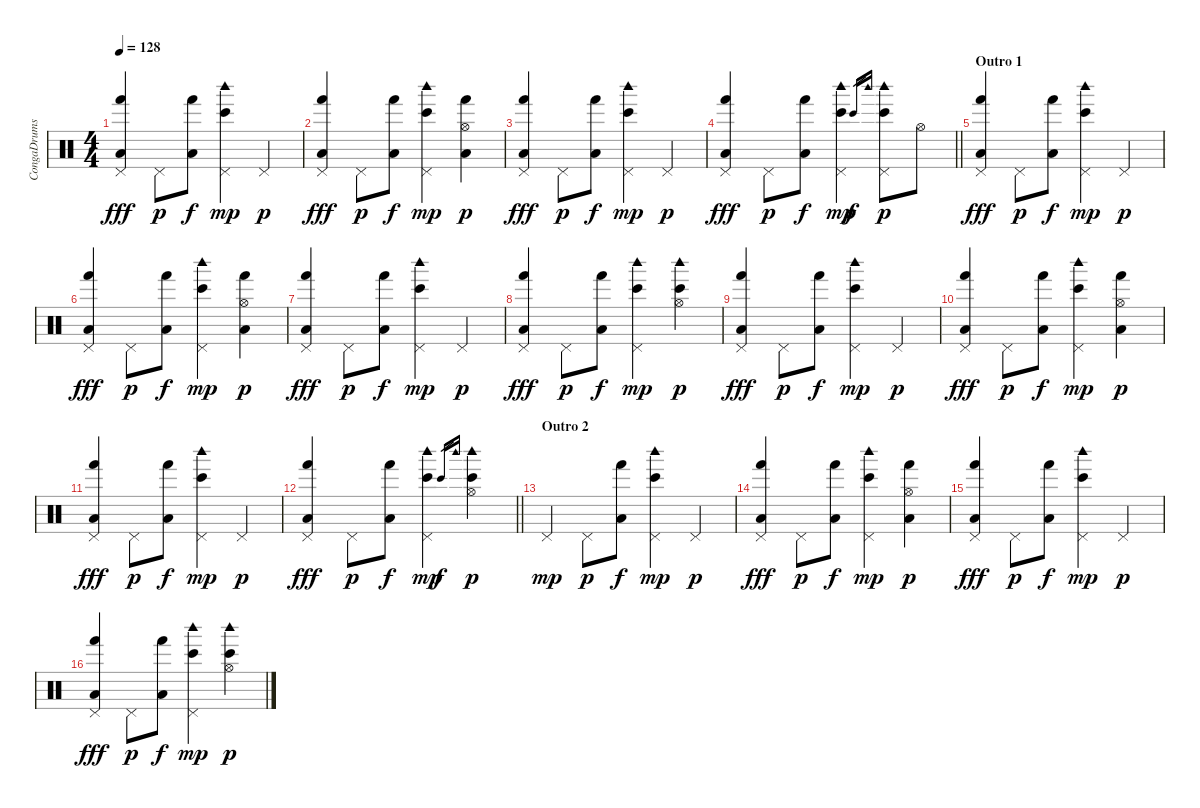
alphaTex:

\track ("CongaDrums" "CongaDrums") {instrument percussion}
\staff {score}
\articulation defaults
\ts (4 4)
\tempo 128
\clef neutral
\ks c
("Pedal Hi-Hat (hit)" "Hand (hit)" "Low Floor Tom (hit)").4{dy fff} "Pedal Hi-Hat (hit)".8{dy p} ("Hand (hit)" "Low Floor Tom (hit)").8{dy f} ("Bongo High (hit)" "Woodblock high (hit)" "Pedal Hi-Hat (hit)").4{dy mp} "Pedal Hi-Hat (hit)".4{dy p} |
("Pedal Hi-Hat (hit)" "Hand (hit)" "Low Floor Tom (hit)").4{dy fff} "Pedal Hi-Hat (hit)".8{dy p} ("Hand (hit)" "Low Floor Tom (hit)").8{dy f} ("Bongo High (hit)" "Woodblock high (hit)" "Pedal Hi-Hat (hit)").4{dy mp} ("Hi-Hat (open)" "Hand (hit)" "Low Floor Tom (hit)").4{dy p} |
("Pedal Hi-Hat (hit)" "Hand (hit)" "Low Floor Tom (hit)").4{dy fff} "Pedal Hi-Hat (hit)".8{dy p} ("Hand (hit)" "Low Floor Tom (hit)").8{dy f} ("Bongo High (hit)" "Woodblock high (hit)" "Pedal Hi-Hat (hit)").4{dy mp} "Pedal Hi-Hat (hit)".4{dy p} |
\barLineRight lightlight
("Pedal Hi-Hat (hit)" "Hand (hit)" "Low Floor Tom (hit)").4{dy fff} "Pedal Hi-Hat (hit)".8{dy p} ("Hand (hit)" "Low Floor Tom (hit)").8{dy f} ("Bongo High (hit)" "Woodblock high (hit)" "Pedal Hi-Hat (hit)").4{dy mp} "Bongo High (hit)".16{gr dy f} "Woodblock high (hit)".16{gr} ("Bongo High (hit)" "Woodblock high (hit)" "Pedal Hi-Hat (hit)").8{dy p} "Hi-Hat (open)".8 |
\section ("" "Outro 1")
("Pedal Hi-Hat (hit)" "Hand (hit)" "Low Floor Tom (hit)").4{dy fff} "Pedal Hi-Hat (hit)".8{dy p} ("Hand (hit)" "Low Floor Tom (hit)").8{dy f} ("Bongo High (hit)" "Woodblock high (hit)" "Pedal Hi-Hat (hit)").4{dy mp} "Pedal Hi-Hat (hit)".4{dy p} |
("Pedal Hi-Hat (hit)" "Hand (hit)" "Low Floor Tom (hit)").4{dy fff} "Pedal Hi-Hat (hit)".8{dy p} ("Hand (hit)" "Low Floor Tom (hit)").8{dy f} ("Bongo High (hit)" "Woodblock high (hit)" "Pedal Hi-Hat (hit)").4{dy mp} ("Hi-Hat (open)" "Hand (hit)" "Low Floor Tom (hit)").4{dy p} |
("Pedal Hi-Hat (hit)" "Hand (hit)" "Low Floor Tom (hit)").4{dy fff} "Pedal Hi-Hat (hit)".8{dy p} ("Hand (hit)" "Low Floor Tom (hit)").8{dy f} ("Bongo High (hit)" "Woodblock high (hit)" "Pedal Hi-Hat (hit)").4{dy mp} "Pedal Hi-Hat (hit)".4{dy p} |
("Pedal Hi-Hat (hit)" "Hand (hit)" "Low Floor Tom (hit)").4{dy fff} "Pedal Hi-Hat (hit)".8{dy p} ("Hand (hit)" "Low Floor Tom (hit)").8{dy f} ("Bongo High (hit)" "Woodblock high (hit)" "Pedal Hi-Hat (hit)").4{dy mp} ("Bongo High (hit)" "Woodblock high (hit)" "Hi-Hat (open)").4{dy p} |
("Pedal Hi-Hat (hit)" "Hand (hit)" "Low Floor Tom (hit)").4{dy fff} "Pedal Hi-Hat (hit)".8{dy p} ("Hand (hit)" "Low Floor Tom (hit)").8{dy f} ("Bongo High (hit)" "Woodblock high (hit)" "Pedal Hi-Hat (hit)").4{dy mp} "Pedal Hi-Hat (hit)".4{dy p} |
("Pedal Hi-Hat (hit)" "Hand (hit)" "Low Floor Tom (hit)").4{dy fff} "Pedal Hi-Hat (hit)".8{dy p} ("Hand (hit)" "Low Floor Tom (hit)").8{dy f} ("Bongo High (hit)" "Woodblock high (hit)" "Pedal Hi-Hat (hit)").4{dy mp} ("Hi-Hat (open)" "Hand (hit)" "Low Floor Tom (hit)").4{dy p} |
("Pedal Hi-Hat (hit)" "Hand (hit)" "Low Floor Tom (hit)").4{dy fff} "Pedal Hi-Hat (hit)".8{dy p} ("Hand (hit)" "Low Floor Tom (hit)").8{dy f} ("Bongo High (hit)" "Woodblock high (hit)" "Pedal Hi-Hat (hit)").4{dy mp} "Pedal Hi-Hat (hit)".4{dy p} |
\barLineRight lightlight
("Pedal Hi-Hat (hit)" "Hand (hit)" "Low Floor Tom (hit)").4{dy fff} "Pedal Hi-Hat (hit)".8{dy p} ("Hand (hit)" "Low Floor Tom (hit)").8{dy f} ("Bongo High (hit)" "Woodblock high (hit)" "Pedal Hi-Hat (hit)").4{dy mp} "Bongo High (hit)".16{gr dy f} "Woodblock high (hit)".16{gr} ("Bongo High (hit)" "Woodblock high (hit)" "Hi-Hat (open)").4{dy p} |
\section ("" "Outro 2")
"Pedal Hi-Hat (hit)".4{dy mp} "Pedal Hi-Hat (hit)".8{dy p} ("Hand (hit)" "Low Floor Tom (hit)").8{dy f} ("Bongo High (hit)" "Woodblock high (hit)" "Pedal Hi-Hat (hit)").4{dy mp} "Pedal Hi-Hat (hit)".4{dy p} |
("Pedal Hi-Hat (hit)" "Hand (hit)" "Low Floor Tom (hit)").4{dy fff} "Pedal Hi-Hat (hit)".8{dy p} ("Hand (hit)" "Low Floor Tom (hit)").8{dy f} ("Bongo High (hit)" "Woodblock high (hit)" "Pedal Hi-Hat (hit)").4{dy mp} ("Hi-Hat (open)" "Hand (hit)" "Low Floor Tom (hit)").4{dy p} |
("Pedal Hi-Hat (hit)" "Hand (hit)" "Low Floor Tom (hit)").4{dy fff} "Pedal Hi-Hat (hit)".8{dy p} ("Hand (hit)" "Low Floor Tom (hit)").8{dy f} ("Bongo High (hit)" "Woodblock high (hit)" "Pedal Hi-Hat (hit)").4{dy mp} "Pedal Hi-Hat (hit)".4{dy p} |
("Pedal Hi-Hat (hit)" "Hand (hit)" "Low Floor Tom (hit)").4{dy fff} "Pedal Hi-Hat (hit)".8{dy p} ("Hand (hit)" "Low Floor Tom (hit)").8{dy f} ("Bongo High (hit)" "Woodblock high (hit)" "Pedal Hi-Hat (hit)").4{dy mp} ("Bongo High (hit)" "Woodblock high (hit)" "Hi-Hat (open)").4{dy p}
